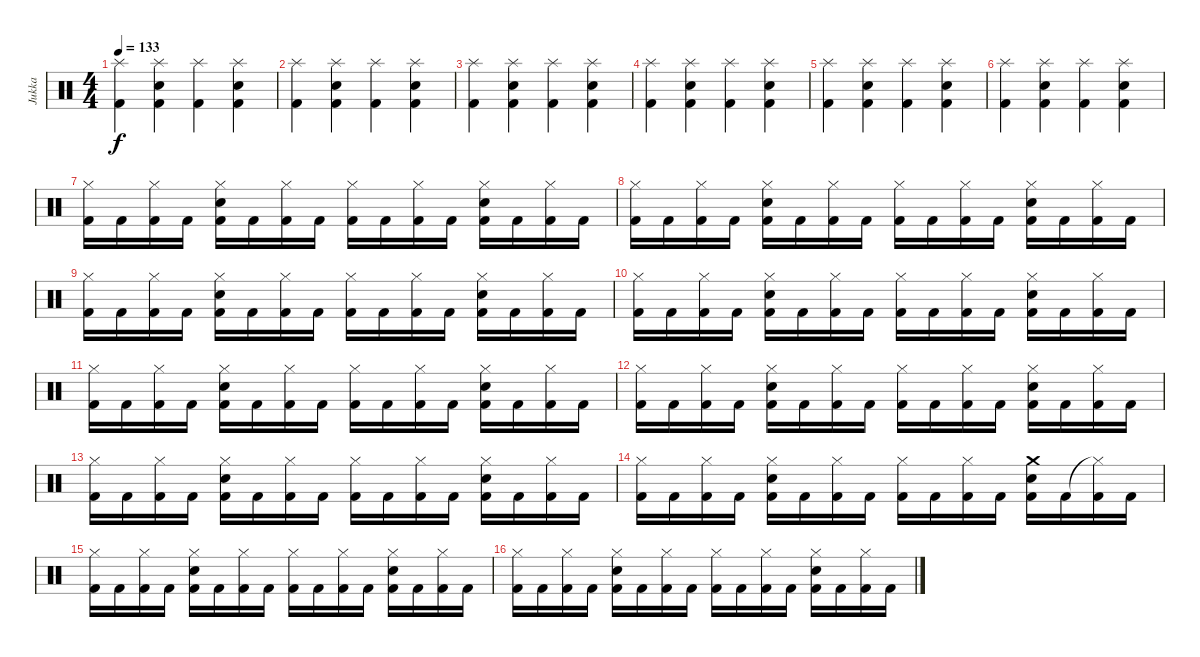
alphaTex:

\track ("Jukka" "Jukka") {instrument percussion}
\staff {score}
\articulation defaults
\ts (4 4)
\tempo 133
\clef neutral
\ks c
("Splash (hit)" "Kick (hit) 2").4{dy f} ("Splash (hit)" "Electric Snare (hit)" "Kick (hit) 2").4 ("Splash (hit)" "Kick (hit) 2").4 ("Splash (hit)" "Electric Snare (hit)" "Kick (hit) 2").4 |
("Splash (hit)" "Kick (hit) 2").4 ("Splash (hit)" "Electric Snare (hit)" "Kick (hit) 2").4 ("Splash (hit)" "Kick (hit) 2").4 ("Splash (hit)" "Electric Snare (hit)" "Kick (hit) 2").4 |
("Splash (hit)" "Kick (hit) 2").4 ("Splash (hit)" "Electric Snare (hit)" "Kick (hit) 2").4 ("Splash (hit)" "Kick (hit) 2").4 ("Splash (hit)" "Electric Snare (hit)" "Kick (hit) 2").4 |
("Splash (hit)" "Kick (hit) 2").4 ("Splash (hit)" "Electric Snare (hit)" "Kick (hit) 2").4 ("Splash (hit)" "Kick (hit) 2").4 ("Splash (hit)" "Electric Snare (hit)" "Kick (hit) 2").4 |
("Splash (hit)" "Kick (hit) 2").4 ("Splash (hit)" "Electric Snare (hit)" "Kick (hit) 2").4 ("Splash (hit)" "Kick (hit) 2").4 ("Splash (hit)" "Electric Snare (hit)" "Kick (hit) 2").4 |
("Splash (hit)" "Kick (hit) 2").4 ("Splash (hit)" "Electric Snare (hit)" "Kick (hit) 2").4 ("Splash (hit)" "Kick (hit) 2").4 ("Splash (hit)" "Electric Snare (hit)" "Kick (hit) 2").4 |
("Hi-Hat (closed)" "Kick (hit) 2").16 "Kick (hit) 2".16 ("Hi-Hat (closed)" "Kick (hit) 2").16 "Kick (hit) 2".16 ("Hi-Hat (closed)" "Electric Snare (hit)" "Kick (hit) 2").16 "Kick (hit) 2".16 ("Hi-Hat (closed)" "Kick (hit) 2").16 "Kick (hit) 2".16 ("Hi-Hat (closed)" "Kick (hit) 2").16 "Kick (hit) 2".16 ("Hi-Hat (closed)" "Kick (hit) 2").16 "Kick (hit) 2".16 ("Hi-Hat (closed)" "Electric Snare (hit)" "Kick (hit) 2").16 "Kick (hit) 2".16 ("Hi-Hat (closed)" "Kick (hit) 2").16 "Kick (hit) 2".16 |
("Hi-Hat (closed)" "Kick (hit) 2").16 "Kick (hit) 2".16 ("Hi-Hat (closed)" "Kick (hit) 2").16 "Kick (hit) 2".16 ("Hi-Hat (closed)" "Electric Snare (hit)" "Kick (hit) 2").16 "Kick (hit) 2".16 ("Hi-Hat (closed)" "Kick (hit) 2").16 "Kick (hit) 2".16 ("Hi-Hat (closed)" "Kick (hit) 2").16 "Kick (hit) 2".16 ("Hi-Hat (closed)" "Kick (hit) 2").16 "Kick (hit) 2".16 ("Hi-Hat (closed)" "Electric Snare (hit)" "Kick (hit) 2").16 "Kick (hit) 2".16 ("Hi-Hat (closed)" "Kick (hit) 2").16 "Kick (hit) 2".16 |
("Hi-Hat (closed)" "Kick (hit) 2").16 "Kick (hit) 2".16 ("Hi-Hat (closed)" "Kick (hit) 2").16 "Kick (hit) 2".16 ("Hi-Hat (closed)" "Electric Snare (hit)" "Kick (hit) 2").16 "Kick (hit) 2".16 ("Hi-Hat (closed)" "Kick (hit) 2").16 "Kick (hit) 2".16 ("Hi-Hat (closed)" "Kick (hit) 2").16 "Kick (hit) 2".16 ("Hi-Hat (closed)" "Kick (hit) 2").16 "Kick (hit) 2".16 ("Hi-Hat (closed)" "Electric Snare (hit)" "Kick (hit) 2").16 "Kick (hit) 2".16 ("Hi-Hat (closed)" "Kick (hit) 2").16 "Kick (hit) 2".16 |
("Hi-Hat (closed)" "Kick (hit) 2").16 "Kick (hit) 2".16 ("Hi-Hat (closed)" "Kick (hit) 2").16 "Kick (hit) 2".16 ("Hi-Hat (closed)" "Electric Snare (hit)" "Kick (hit) 2").16 "Kick (hit) 2".16 ("Hi-Hat (closed)" "Kick (hit) 2").16 "Kick (hit) 2".16 ("Hi-Hat (closed)" "Kick (hit) 2").16 "Kick (hit) 2".16 ("Hi-Hat (closed)" "Kick (hit) 2").16 "Kick (hit) 2".16 ("Hi-Hat (closed)" "Electric Snare (hit)" "Kick (hit) 2").16 "Kick (hit) 2".16 ("Hi-Hat (closed)" "Kick (hit) 2").16 "Kick (hit) 2".16 |
("Hi-Hat (closed)" "Kick (hit) 2").16 "Kick (hit) 2".16 ("Hi-Hat (closed)" "Kick (hit) 2").16 "Kick (hit) 2".16 ("Hi-Hat (closed)" "Electric Snare (hit)" "Kick (hit) 2").16 "Kick (hit) 2".16 ("Hi-Hat (closed)" "Kick (hit) 2").16 "Kick (hit) 2".16 ("Hi-Hat (closed)" "Kick (hit) 2").16 "Kick (hit) 2".16 ("Hi-Hat (closed)" "Kick (hit) 2").16 "Kick (hit) 2".16 ("Hi-Hat (closed)" "Electric Snare (hit)" "Kick (hit) 2").16 "Kick (hit) 2".16 ("Hi-Hat (closed)" "Kick (hit) 2").16 "Kick (hit) 2".16 |
("Hi-Hat (closed)" "Kick (hit) 2").16 "Kick (hit) 2".16 ("Hi-Hat (closed)" "Kick (hit) 2").16 "Kick (hit) 2".16 ("Hi-Hat (closed)" "Electric Snare (hit)" "Kick (hit) 2").16 "Kick (hit) 2".16 ("Hi-Hat (closed)" "Kick (hit) 2").16 "Kick (hit) 2".16 ("Hi-Hat (closed)" "Kick (hit) 2").16 "Kick (hit) 2".16 ("Hi-Hat (closed)" "Kick (hit) 2").16 "Kick (hit) 2".16 ("Hi-Hat (closed)" "Electric Snare (hit)" "Kick (hit) 2").16 "Kick (hit) 2".16 ("Hi-Hat (closed)" "Kick (hit) 2").16 "Kick (hit) 2".16 |
("Hi-Hat (closed)" "Kick (hit) 2").16 "Kick (hit) 2".16 ("Hi-Hat (closed)" "Kick (hit) 2").16 "Kick (hit) 2".16 ("Hi-Hat (closed)" "Electric Snare (hit)" "Kick (hit) 2").16 "Kick (hit) 2".16 ("Hi-Hat (closed)" "Kick (hit) 2").16 "Kick (hit) 2".16 ("Hi-Hat (closed)" "Kick (hit) 2").16 "Kick (hit) 2".16 ("Hi-Hat (closed)" "Kick (hit) 2").16 "Kick (hit) 2".16 ("Hi-Hat (closed)" "Electric Snare (hit)" "Kick (hit) 2").16 "Kick (hit) 2".16 ("Hi-Hat (closed)" "Kick (hit) 2").16 "Kick (hit) 2".16 |
("Hi-Hat (closed)" "Kick (hit) 2").16 "Kick (hit) 2".16 ("Hi-Hat (closed)" "Kick (hit) 2").16 "Kick (hit) 2".16 ("Hi-Hat (closed)" "Electric Snare (hit)" "Kick (hit) 2").16 "Kick (hit) 2".16 ("Hi-Hat (closed)" "Kick (hit) 2").16 "Kick (hit) 2".16 ("Hi-Hat (closed)" "Kick (hit) 2").16 "Kick (hit) 2".16 ("Hi-Hat (closed)" "Kick (hit) 2").16 "Kick (hit) 2".16 ("Crash medium (hit)" "Electric Snare (hit)" "Kick (hit) 2").16 "Kick (hit) 2".16 ("Hi-Hat (closed)"{t} "Kick (hit) 2").16 "Kick (hit) 2".16 |
("Hi-Hat (closed)" "Kick (hit) 2").16 "Kick (hit) 2".16 ("Hi-Hat (closed)" "Kick (hit) 2").16 "Kick (hit) 2".16 ("Hi-Hat (closed)" "Electric Snare (hit)" "Kick (hit) 2").16 "Kick (hit) 2".16 ("Hi-Hat (closed)" "Kick (hit) 2").16 "Kick (hit) 2".16 ("Hi-Hat (closed)" "Kick (hit) 2").16 "Kick (hit) 2".16 ("Hi-Hat (closed)" "Kick (hit) 2").16 "Kick (hit) 2".16 ("Hi-Hat (closed)" "Electric Snare (hit)" "Kick (hit) 2").16 "Kick (hit) 2".16 ("Hi-Hat (closed)" "Kick (hit) 2").16 "Kick (hit) 2".16 |
("Hi-Hat (closed)" "Kick (hit) 2").16 "Kick (hit) 2".16 ("Hi-Hat (closed)" "Kick (hit) 2").16 "Kick (hit) 2".16 ("Hi-Hat (closed)" "Electric Snare (hit)" "Kick (hit) 2").16 "Kick (hit) 2".16 ("Hi-Hat (closed)" "Kick (hit) 2").16 "Kick (hit) 2".16 ("Hi-Hat (closed)" "Kick (hit) 2").16 "Kick (hit) 2".16 ("Hi-Hat (closed)" "Kick (hit) 2").16 "Kick (hit) 2".16 ("Hi-Hat (closed)" "Electric Snare (hit)" "Kick (hit) 2").16 "Kick (hit) 2".16 ("Hi-Hat (closed)" "Kick (hit) 2").16 "Kick (hit) 2".16
